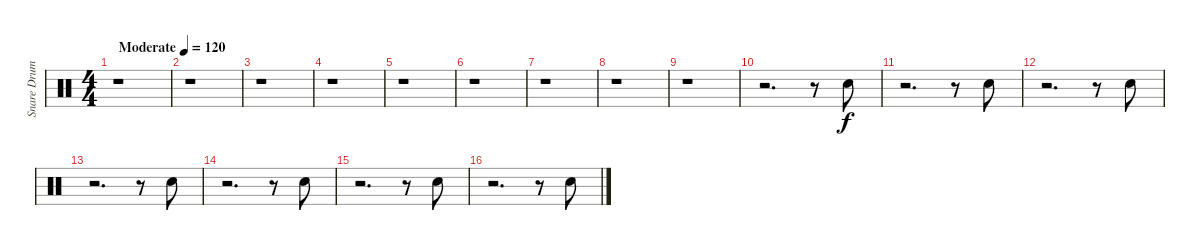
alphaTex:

\track ("Snare Drum" "Snare Drum") {instrument percussion}
\staff {score}
\articulation defaults
\ts (4 4)
\tempo (120 "Moderate")
\clef neutral
\ks c
r.1{dy f} |
r.1 |
r.1 |
r.1 |
r.1 |
r.1 |
r.1 |
r.1 |
r.1 |
r.2{d} r.8 "Snare (hit) 2".8 |
r.2{d} r.8 "Snare (hit) 2".8 |
r.2{d} r.8 "Snare (hit) 2".8 |
r.2{d} r.8 "Snare (hit) 2".8 |
r.2{d} r.8 "Snare (hit) 2".8 |
r.2{d} r.8 "Snare (hit) 2".8 |
r.2{d} r.8 "Snare (hit) 2".8
